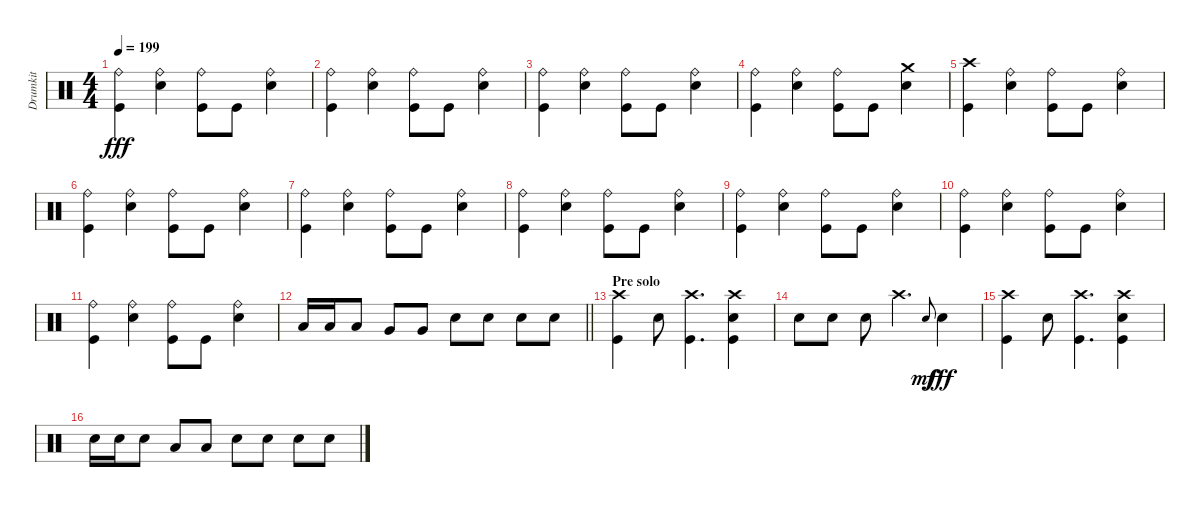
\track ("Drumkit" "Drumkit") {instrument percussion}
\staff
\articulation defaults
\ts (4 4)
\tempo 199
\clef neutral
\ks c
("Kick (hit)" "Ride (bell)").4{dy fff} ("Snare (hit) 2" "Ride (bell)").4 ("Kick (hit)" "Ride (bell)").8 "Kick (hit)".8 ("Snare (hit) 2" "Ride (bell)").4 |
("Kick (hit)" "Ride (bell)").4 ("Snare (hit) 2" "Ride (bell)").4 ("Kick (hit)" "Ride (bell)").8 "Kick (hit)".8 ("Snare (hit) 2" "Ride (bell)").4 |
("Kick (hit)" "Ride (bell)").4 ("Snare (hit) 2" "Ride (bell)").4 ("Kick (hit)" "Ride (bell)").8 "Kick (hit)".8 ("Snare (hit) 2" "Ride (bell)").4 |
("Kick (hit)" "Ride (bell)").4 ("Snare (hit) 2" "Ride (bell)").4 ("Kick (hit)" "Ride (bell)").8 "Kick (hit)".8 ("Snare (hit) 2" "Crash medium (hit)").4 |
("Kick (hit)" "Crash high (hit)").4 ("Snare (hit) 2" "Ride (bell)").4 ("Kick (hit)" "Ride (bell)").8 "Kick (hit)".8 ("Snare (hit) 2" "Ride (bell)").4 |
("Kick (hit)" "Ride (bell)").4 ("Snare (hit) 2" "Ride (bell)").4 ("Kick (hit)" "Ride (bell)").8 "Kick (hit)".8 ("Snare (hit) 2" "Ride (bell)").4 |
("Kick (hit)" "Ride (bell)").4 ("Snare (hit) 2" "Ride (bell)").4 ("Kick (hit)" "Ride (bell)").8 "Kick (hit)".8 ("Snare (hit) 2" "Ride (bell)").4 |
("Kick (hit)" "Ride (bell)").4 ("Snare (hit) 2" "Ride (bell)").4 ("Kick (hit)" "Ride (bell)").8 "Kick (hit)".8 ("Snare (hit) 2" "Ride (bell)").4 |
("Kick (hit)" "Ride (bell)").4 ("Snare (hit) 2" "Ride (bell)").4 ("Kick (hit)" "Ride (bell)").8 "Kick (hit)".8 ("Snare (hit) 2" "Ride (bell)").4 |
("Kick (hit)" "Ride (bell)").4 ("Snare (hit) 2" "Ride (bell)").4 ("Kick (hit)" "Ride (bell)").8 "Kick (hit)".8 ("Snare (hit) 2" "Ride (bell)").4 |
("Kick (hit)" "Ride (bell)").4 ("Snare (hit) 2" "Ride (bell)").4 ("Kick (hit)" "Ride (bell)").8 "Kick (hit)".8 ("Snare (hit) 2" "Ride (bell)").4 |
\barLineRight lightlight "Low Tom (hit)".16 "Low Tom (hit)".16 "Low Tom (hit)".8 "Very Low Tom (hit)".8 "Very Low Tom (hit)".8 "Snare (hit) 2".8 "Snare (hit) 2".8 "Snare (hit) 2".8 "Snare (hit) 2".8
|
\section ("" "Pre solo")
("Crash high (hit)" "Kick (hit)").4 "Snare (hit) 2".8 ("Crash high (hit)" "Kick (hit)").4{d} ("Crash high (hit)" "Kick (hit)" "Snare (hit) 2").4 |
"Snare (hit) 2".8 "Snare (hit) 2".8 "Snare (hit) 2".8 "Crash high (hit)".4{d} "Snare (hit)".8{gr onbeat dy mf} "Snare (hit) 2".4{dy fff} |
("Crash high (hit)" "Kick (hit)").4 "Snare (hit) 2".8 ("Crash high (hit)" "Kick (hit)").4{d} ("Crash high (hit)" "Kick (hit)" "Snare (hit) 2").4 |
"Snare (hit) 2".16 "Snare (hit) 2".16 "Snare (hit) 2".8 "Low Tom (hit)".8 "Low Tom (hit)".8 "Snare (hit) 2".8 "Snare (hit) 2".8 "Snare (hit) 2".8 "Snare (hit) 2".8
